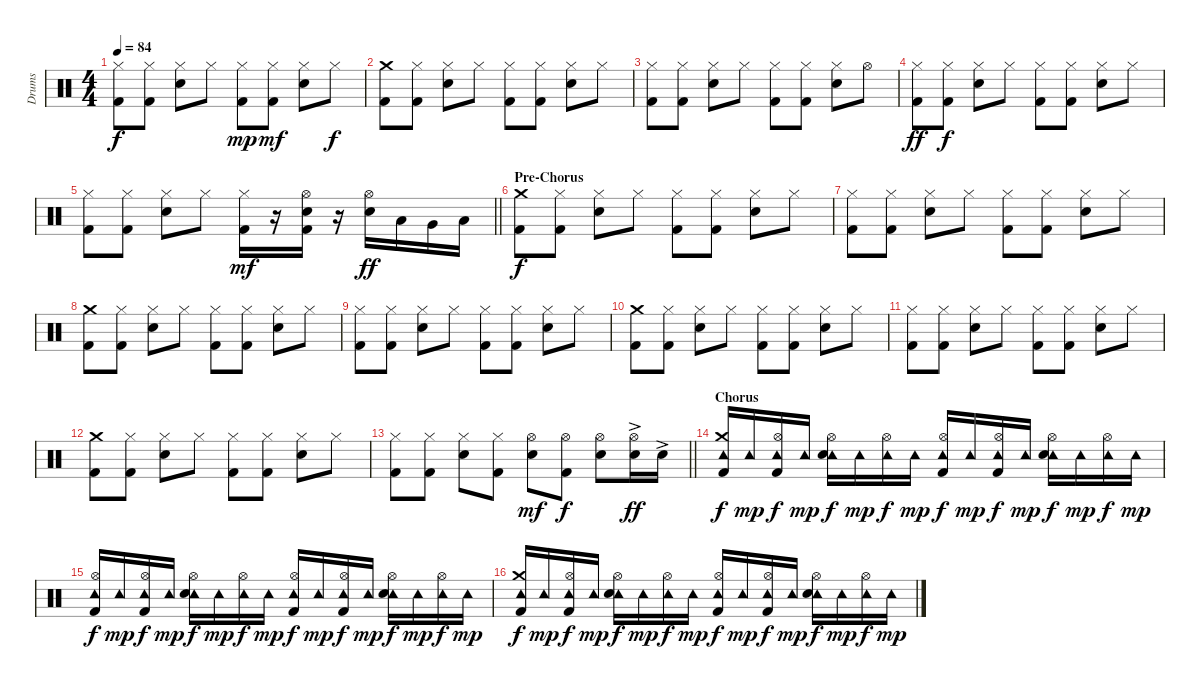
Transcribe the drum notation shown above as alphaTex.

\track ("Drums" "Drums") {instrument percussion}
\staff {score}
\articulation defaults
\ts (4 4)
\tempo 84
\clef neutral
\ks c
("Hi-Hat (closed)" "Kick (hit) 2").8{dy f} ("Hi-Hat (closed)" "Kick (hit) 2").8 ("Hi-Hat (closed)" "Electric Snare (hit)").8 "Hi-Hat (closed)".8 ("Hi-Hat (closed)" "Kick (hit) 2").8{dy mp} ("Hi-Hat (closed)" "Kick (hit) 2").8{dy mf} ("Hi-Hat (closed)" "Electric Snare (hit)").8 "Hi-Hat (closed)".8{dy f} |
("Crash medium (hit)" "Kick (hit) 2").8 ("Hi-Hat (closed)" "Kick (hit) 2").8 ("Hi-Hat (closed)" "Electric Snare (hit)").8 "Hi-Hat (closed)".8 ("Hi-Hat (closed)" "Kick (hit) 2").8 ("Hi-Hat (closed)" "Kick (hit) 2").8 ("Hi-Hat (closed)" "Electric Snare (hit)").8 "Hi-Hat (closed)".8 |
("Hi-Hat (closed)" "Kick (hit) 2").8 ("Hi-Hat (closed)" "Kick (hit) 2").8 ("Hi-Hat (closed)" "Electric Snare (hit)").8 "Hi-Hat (closed)".8 ("Hi-Hat (closed)" "Kick (hit) 2").8 ("Hi-Hat (closed)" "Kick (hit) 2").8 ("Hi-Hat (closed)" "Electric Snare (hit)").8 "Hi-Hat (open)".8 |
("Hi-Hat (closed)" "Kick (hit) 2").8{dy ff} ("Hi-Hat (closed)" "Kick (hit) 2").8{dy f} ("Hi-Hat (closed)" "Electric Snare (hit)").8 "Hi-Hat (closed)".8 ("Hi-Hat (closed)" "Kick (hit) 2").8 ("Hi-Hat (closed)" "Kick (hit) 2").8 ("Hi-Hat (closed)" "Electric Snare (hit)").8 "Hi-Hat (closed)".8 |
\barLineRight lightlight
("Hi-Hat (closed)" "Kick (hit) 2").8 ("Hi-Hat (closed)" "Kick (hit) 2").8 ("Hi-Hat (closed)" "Electric Snare (hit)").8 "Hi-Hat (closed)".8 ("Hi-Hat (closed)" "Kick (hit) 2").16{dy mf} r.16 ("Hi-Hat (open)" "Electric Snare (hit)" "Kick (hit) 2").16 r.16 ("Hi-Hat (open)" "Electric Snare (hit)").16{dy ff} "Low Tom (hit)".16 "Very Low Tom (hit)".16 "Low Floor Tom (hit)".16 |
\section ("" "Pre-Chorus")
("Crash medium (hit)" "Kick (hit) 2").8{dy f} ("Hi-Hat (closed)" "Kick (hit) 2").8 ("Hi-Hat (closed)" "Electric Snare (hit)").8 "Hi-Hat (closed)".8 ("Hi-Hat (closed)" "Kick (hit) 2").8 ("Hi-Hat (closed)" "Kick (hit) 2").8 ("Hi-Hat (closed)" "Electric Snare (hit)").8 "Hi-Hat (closed)".8 |
("Hi-Hat (closed)" "Kick (hit) 2").8 ("Hi-Hat (closed)" "Kick (hit) 2").8 ("Hi-Hat (closed)" "Electric Snare (hit)").8 "Hi-Hat (closed)".8 ("Hi-Hat (closed)" "Kick (hit) 2").8 ("Hi-Hat (closed)" "Kick (hit) 2").8 ("Hi-Hat (closed)" "Electric Snare (hit)").8 "Hi-Hat (closed)".8 |
("Crash medium (hit)" "Kick (hit) 2").8 ("Hi-Hat (closed)" "Kick (hit) 2").8 ("Hi-Hat (closed)" "Electric Snare (hit)").8 "Hi-Hat (closed)".8 ("Hi-Hat (closed)" "Kick (hit) 2").8 ("Hi-Hat (closed)" "Kick (hit) 2").8 ("Hi-Hat (closed)" "Electric Snare (hit)").8 "Hi-Hat (closed)".8 |
("Hi-Hat (closed)" "Kick (hit) 2").8 ("Hi-Hat (closed)" "Kick (hit) 2").8 ("Hi-Hat (closed)" "Electric Snare (hit)").8 "Hi-Hat (closed)".8 ("Hi-Hat (closed)" "Kick (hit) 2").8 ("Hi-Hat (closed)" "Kick (hit) 2").8 ("Hi-Hat (closed)" "Electric Snare (hit)").8 "Hi-Hat (closed)".8 |
("Crash medium (hit)" "Kick (hit) 2").8 ("Hi-Hat (closed)" "Kick (hit) 2").8 ("Hi-Hat (closed)" "Electric Snare (hit)").8 "Hi-Hat (closed)".8 ("Hi-Hat (closed)" "Kick (hit) 2").8 ("Hi-Hat (closed)" "Kick (hit) 2").8 ("Hi-Hat (closed)" "Electric Snare (hit)").8 "Hi-Hat (closed)".8 |
("Hi-Hat (closed)" "Kick (hit) 2").8 ("Hi-Hat (closed)" "Kick (hit) 2").8 ("Hi-Hat (closed)" "Electric Snare (hit)").8 "Hi-Hat (closed)".8 ("Hi-Hat (closed)" "Kick (hit) 2").8 ("Hi-Hat (closed)" "Kick (hit) 2").8 ("Hi-Hat (closed)" "Electric Snare (hit)").8 "Hi-Hat (closed)".8 |
("Crash medium (hit)" "Kick (hit) 2").8 ("Hi-Hat (closed)" "Kick (hit) 2").8 ("Hi-Hat (closed)" "Electric Snare (hit)").8 "Hi-Hat (closed)".8 ("Hi-Hat (closed)" "Kick (hit) 2").8 ("Hi-Hat (closed)" "Kick (hit) 2").8 ("Hi-Hat (closed)" "Electric Snare (hit)").8 "Hi-Hat (closed)".8 |
\barLineRight lightlight
("Hi-Hat (closed)" "Kick (hit) 2").8 ("Hi-Hat (closed)" "Kick (hit) 2").8 ("Hi-Hat (closed)" "Electric Snare (hit)").8 ("Hi-Hat (closed)" "Kick (hit) 2").8 ("Hi-Hat (open)" "Electric Snare (hit)").8{dy mf} ("Hi-Hat (open)" "Kick (hit) 2").8{dy f} ("Hi-Hat (open)" "Electric Snare (hit)").8 ("Hi-Hat (open)" "Electric Snare (hit)"{ac}).16{dy ff} "Electric Snare (hit)"{ac}.16 |
\section ("" "Chorus")
("Crash medium (hit)" "Tambourine (hit)" "Kick (hit) 2").16{dy f} "Tambourine (hit)".16{dy mp} ("Hi-Hat (open)" "Tambourine (hit)" "Kick (hit) 2").16{dy f} "Tambourine (hit)".16{dy mp} ("Hi-Hat (open)" "Tambourine (hit)" "Electric Snare (hit)").16{dy f} "Tambourine (hit)".16{dy mp} ("Hi-Hat (open)" "Tambourine (hit)").16{dy f} "Tambourine (hit)".16{dy mp} ("Hi-Hat (open)" "Tambourine (hit)" "Kick (hit) 2").16{dy f} "Tambourine (hit)".16{dy mp} ("Hi-Hat (open)" "Tambourine (hit)" "Kick (hit) 2").16{dy f} "Tambourine (hit)".16{dy mp} ("Hi-Hat (open)" "Tambourine (hit)" "Electric Snare (hit)").16{dy f} "Tambourine (hit)".16{dy mp} ("Hi-Hat (open)" "Tambourine (hit)").16{dy f} "Tambourine (hit)".16{dy mp} |
("Hi-Hat (open)" "Tambourine (hit)" "Kick (hit) 2").16{dy f} "Tambourine (hit)".16{dy mp} ("Hi-Hat (open)" "Tambourine (hit)" "Kick (hit) 2").16{dy f} "Tambourine (hit)".16{dy mp} ("Hi-Hat (open)" "Tambourine (hit)" "Electric Snare (hit)").16{dy f} "Tambourine (hit)".16{dy mp} ("Hi-Hat (open)" "Tambourine (hit)").16{dy f} "Tambourine (hit)".16{dy mp} ("Hi-Hat (open)" "Tambourine (hit)" "Kick (hit) 2").16{dy f} "Tambourine (hit)".16{dy mp} ("Hi-Hat (open)" "Tambourine (hit)" "Kick (hit) 2").16{dy f} "Tambourine (hit)".16{dy mp} ("Hi-Hat (open)" "Tambourine (hit)" "Electric Snare (hit)").16{dy f} "Tambourine (hit)".16{dy mp} ("Hi-Hat (open)" "Tambourine (hit)").16{dy f} "Tambourine (hit)".16{dy mp} |
("Crash medium (hit)" "Tambourine (hit)" "Kick (hit) 2").16{dy f} "Tambourine (hit)".16{dy mp} ("Hi-Hat (open)" "Tambourine (hit)" "Kick (hit) 2").16{dy f} "Tambourine (hit)".16{dy mp} ("Hi-Hat (open)" "Tambourine (hit)" "Electric Snare (hit)").16{dy f} "Tambourine (hit)".16{dy mp} ("Hi-Hat (open)" "Tambourine (hit)").16{dy f} "Tambourine (hit)".16{dy mp} ("Hi-Hat (open)" "Tambourine (hit)" "Kick (hit) 2").16{dy f} "Tambourine (hit)".16{dy mp} ("Hi-Hat (open)" "Tambourine (hit)" "Kick (hit) 2").16{dy f} "Tambourine (hit)".16{dy mp} ("Hi-Hat (open)" "Tambourine (hit)" "Electric Snare (hit)").16{dy f} "Tambourine (hit)".16{dy mp} ("Hi-Hat (open)" "Tambourine (hit)").16{dy f} "Tambourine (hit)".16{dy mp}
